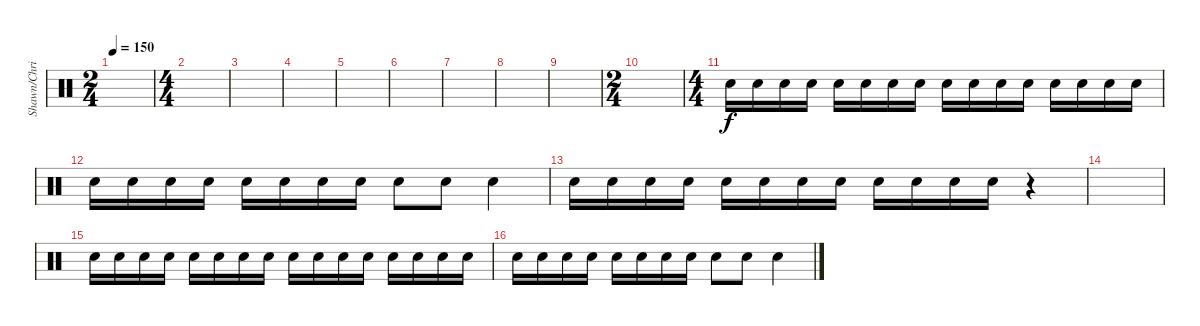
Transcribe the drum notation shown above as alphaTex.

\track ("Shawn/Chris" "Shawn/Chri") {instrument percussion}
\staff {score}
\articulation defaults
\ts (2 4)
\tempo 150
\clef neutral
\ks c
|
\ts (4 4)
|
|
|
|
|
|
|
|
\ts (2 4)
|
\ts (4 4)
"Snare (hit) 2".16 "Snare (hit) 2".16 "Snare (hit) 2".16 "Snare (hit) 2".16 "Snare (hit) 2".16 "Snare (hit) 2".16 "Snare (hit) 2".16 "Snare (hit) 2".16 "Snare (hit) 2".16 "Snare (hit) 2".16 "Snare (hit) 2".16 "Snare (hit) 2".16 "Snare (hit) 2".16 "Snare (hit) 2".16 "Snare (hit) 2".16 "Snare (hit) 2".16 |
"Snare (hit) 2".16 "Snare (hit) 2".16 "Snare (hit) 2".16 "Snare (hit) 2".16 "Snare (hit) 2".16 "Snare (hit) 2".16 "Snare (hit) 2".16 "Snare (hit) 2".16 "Snare (hit) 2".8 "Snare (hit) 2".8 "Snare (hit) 2".4 |
"Snare (hit) 2".16 "Snare (hit) 2".16 "Snare (hit) 2".16 "Snare (hit) 2".16 "Snare (hit) 2".16 "Snare (hit) 2".16 "Snare (hit) 2".16 "Snare (hit) 2".16 "Snare (hit) 2".16 "Snare (hit) 2".16 "Snare (hit) 2".16 "Snare (hit) 2".16 r.4 |
|
"Snare (hit) 2".16 "Snare (hit) 2".16 "Snare (hit) 2".16 "Snare (hit) 2".16 "Snare (hit) 2".16 "Snare (hit) 2".16 "Snare (hit) 2".16 "Snare (hit) 2".16 "Snare (hit) 2".16 "Snare (hit) 2".16 "Snare (hit) 2".16 "Snare (hit) 2".16 "Snare (hit) 2".16 "Snare (hit) 2".16 "Snare (hit) 2".16 "Snare (hit) 2".16 |
"Snare (hit) 2".16 "Snare (hit) 2".16 "Snare (hit) 2".16 "Snare (hit) 2".16 "Snare (hit) 2".16 "Snare (hit) 2".16 "Snare (hit) 2".16 "Snare (hit) 2".16 "Snare (hit) 2".8 "Snare (hit) 2".8 "Snare (hit) 2".4
